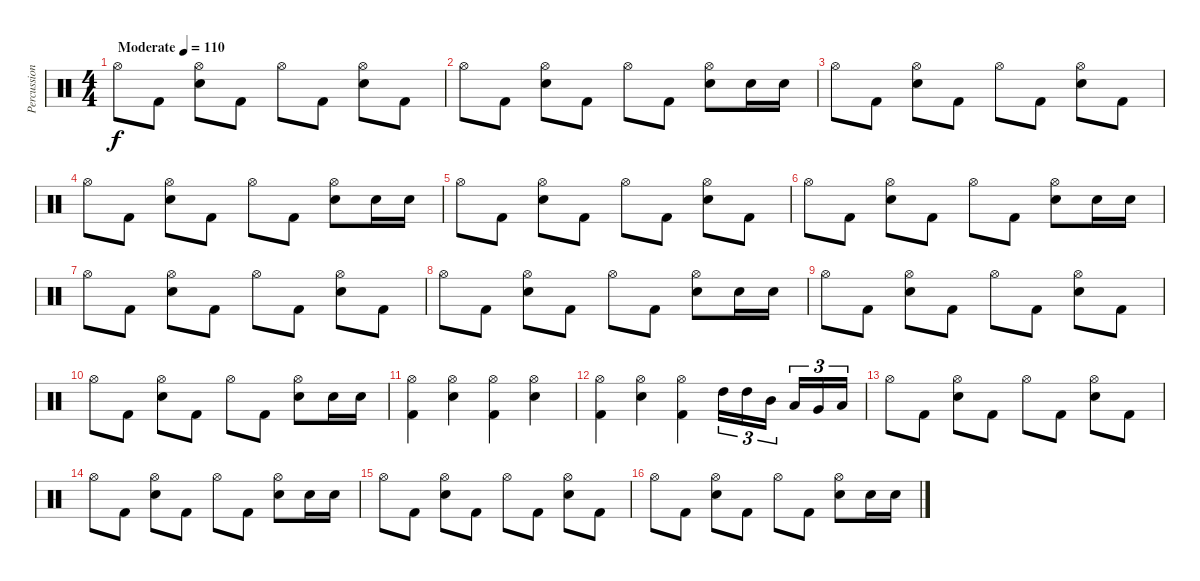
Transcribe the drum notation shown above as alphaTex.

\track ("Percussion" "Percussion") {instrument percussion}
\staff {score}
\articulation defaults
\ts (4 4)
\tempo (110 "Moderate")
\clef neutral
\ks c "Hi-Hat (open)".8{dy f} "Kick (hit) 2".8
("Electric Snare (hit)" "Hi-Hat (open)").8 "Kick (hit) 2".8 "Hi-Hat (open)".8 "Kick (hit) 2".8 ("Electric Snare (hit)" "Hi-Hat (open)").8 "Kick (hit) 2".8 |
"Hi-Hat (open)".8 "Kick (hit) 2".8 ("Electric Snare (hit)" "Hi-Hat (open)").8 "Kick (hit) 2".8 "Hi-Hat (open)".8 "Kick (hit) 2".8 ("Electric Snare (hit)" "Hi-Hat (open)").8 "Electric Snare (hit)".16 "Electric Snare (hit)".16 |
"Hi-Hat (open)".8 "Kick (hit) 2".8 ("Electric Snare (hit)" "Hi-Hat (open)").8 "Kick (hit) 2".8 "Hi-Hat (open)".8 "Kick (hit) 2".8 ("Electric Snare (hit)" "Hi-Hat (open)").8 "Kick (hit) 2".8 |
"Hi-Hat (open)".8 "Kick (hit) 2".8 ("Electric Snare (hit)" "Hi-Hat (open)").8 "Kick (hit) 2".8 "Hi-Hat (open)".8 "Kick (hit) 2".8 ("Electric Snare (hit)" "Hi-Hat (open)").8 "Electric Snare (hit)".16 "Electric Snare (hit)".16 |
"Hi-Hat (open)".8 "Kick (hit) 2".8 ("Electric Snare (hit)" "Hi-Hat (open)").8 "Kick (hit) 2".8 "Hi-Hat (open)".8 "Kick (hit) 2".8 ("Electric Snare (hit)" "Hi-Hat (open)").8 "Kick (hit) 2".8 |
"Hi-Hat (open)".8 "Kick (hit) 2".8 ("Electric Snare (hit)" "Hi-Hat (open)").8 "Kick (hit) 2".8 "Hi-Hat (open)".8 "Kick (hit) 2".8 ("Electric Snare (hit)" "Hi-Hat (open)").8 "Electric Snare (hit)".16 "Electric Snare (hit)".16 |
"Hi-Hat (open)".8 "Kick (hit) 2".8 ("Electric Snare (hit)" "Hi-Hat (open)").8 "Kick (hit) 2".8 "Hi-Hat (open)".8 "Kick (hit) 2".8 ("Electric Snare (hit)" "Hi-Hat (open)").8 "Kick (hit) 2".8 |
"Hi-Hat (open)".8 "Kick (hit) 2".8 ("Electric Snare (hit)" "Hi-Hat (open)").8 "Kick (hit) 2".8 "Hi-Hat (open)".8 "Kick (hit) 2".8 ("Electric Snare (hit)" "Hi-Hat (open)").8 "Electric Snare (hit)".16 "Electric Snare (hit)".16 |
"Hi-Hat (open)".8 "Kick (hit) 2".8 ("Electric Snare (hit)" "Hi-Hat (open)").8 "Kick (hit) 2".8 "Hi-Hat (open)".8 "Kick (hit) 2".8 ("Electric Snare (hit)" "Hi-Hat (open)").8 "Kick (hit) 2".8 |
"Hi-Hat (open)".8 "Kick (hit) 2".8 ("Electric Snare (hit)" "Hi-Hat (open)").8 "Kick (hit) 2".8 "Hi-Hat (open)".8 "Kick (hit) 2".8 ("Electric Snare (hit)" "Hi-Hat (open)").8 "Electric Snare (hit)".16 "Electric Snare (hit)".16 |
("Hi-Hat (open)" "Kick (hit) 2").4 ("Hi-Hat (open)" "Electric Snare (hit)").4 ("Hi-Hat (open)" "Kick (hit) 2").4 ("Hi-Hat (open)" "Electric Snare (hit)").4 |
("Hi-Hat (open)" "Kick (hit) 2").4 ("Hi-Hat (open)" "Electric Snare (hit)").4 ("Hi-Hat (open)" "Kick (hit) 2").4 "High Tom (hit)".16{tu (3 2)} "High Tom (hit)".16{tu (3 2)} "Mid Tom (hit)".16{tu (3 2) beam splitsecondary} "Low Tom (hit)".16{tu (3 2)} "Very Low Tom (hit)".16{tu (3 2)} "Low Floor Tom (hit)".16{tu (3 2)} |
"Hi-Hat (open)".8 "Kick (hit) 2".8 ("Electric Snare (hit)" "Hi-Hat (open)").8 "Kick (hit) 2".8 "Hi-Hat (open)".8 "Kick (hit) 2".8 ("Electric Snare (hit)" "Hi-Hat (open)").8 "Kick (hit) 2".8 |
"Hi-Hat (open)".8 "Kick (hit) 2".8 ("Electric Snare (hit)" "Hi-Hat (open)").8 "Kick (hit) 2".8 "Hi-Hat (open)".8 "Kick (hit) 2".8 ("Electric Snare (hit)" "Hi-Hat (open)").8 "Electric Snare (hit)".16 "Electric Snare (hit)".16 |
"Hi-Hat (open)".8 "Kick (hit) 2".8 ("Electric Snare (hit)" "Hi-Hat (open)").8 "Kick (hit) 2".8 "Hi-Hat (open)".8 "Kick (hit) 2".8 ("Electric Snare (hit)" "Hi-Hat (open)").8 "Kick (hit) 2".8 |
"Hi-Hat (open)".8 "Kick (hit) 2".8 ("Electric Snare (hit)" "Hi-Hat (open)").8 "Kick (hit) 2".8 "Hi-Hat (open)".8 "Kick (hit) 2".8 ("Electric Snare (hit)" "Hi-Hat (open)").8 "Electric Snare (hit)".16 "Electric Snare (hit)".16
